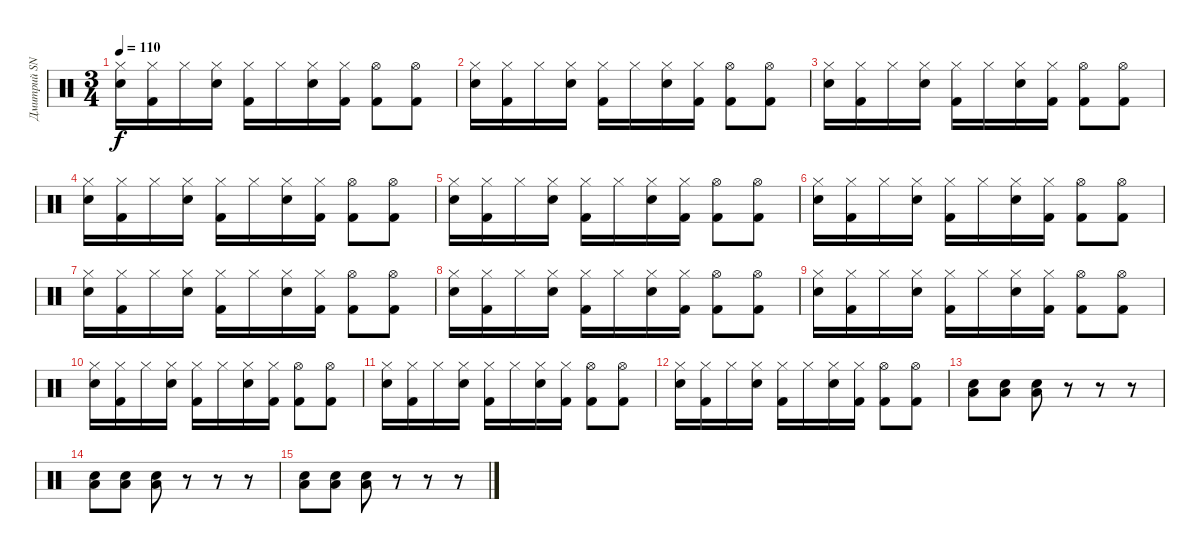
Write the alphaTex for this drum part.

\track ("Дмитрий SNAKE" "Дмитрий SN") {instrument percussion}
\staff {score}
\articulation defaults
\ts (3 4)
\tempo 110
\clef neutral
\ks c
("Hi-Hat (closed)" "Snare (hit) 2").16{dy f} ("Hi-Hat (closed)" "Kick (hit) 2").16 "Hi-Hat (closed)".16 ("Hi-Hat (closed)" "Snare (hit) 2").16 ("Hi-Hat (closed)" "Kick (hit) 2").16 "Hi-Hat (closed)".16 ("Hi-Hat (closed)" "Snare (hit) 2").16 ("Hi-Hat (closed)" "Kick (hit) 2").16 ("Hi-Hat (open)" "Kick (hit) 2").8 ("Hi-Hat (open)" "Kick (hit) 2").8 |
("Hi-Hat (closed)" "Snare (hit) 2").16 ("Hi-Hat (closed)" "Kick (hit) 2").16 "Hi-Hat (closed)".16 ("Hi-Hat (closed)" "Snare (hit) 2").16 ("Hi-Hat (closed)" "Kick (hit) 2").16 "Hi-Hat (closed)".16 ("Hi-Hat (closed)" "Snare (hit) 2").16 ("Hi-Hat (closed)" "Kick (hit) 2").16 ("Hi-Hat (open)" "Kick (hit) 2").8 ("Hi-Hat (open)" "Kick (hit) 2").8 |
("Hi-Hat (closed)" "Snare (hit) 2").16 ("Hi-Hat (closed)" "Kick (hit) 2").16 "Hi-Hat (closed)".16 ("Hi-Hat (closed)" "Snare (hit) 2").16 ("Hi-Hat (closed)" "Kick (hit) 2").16 "Hi-Hat (closed)".16 ("Hi-Hat (closed)" "Snare (hit) 2").16 ("Hi-Hat (closed)" "Kick (hit) 2").16 ("Hi-Hat (open)" "Kick (hit) 2").8 ("Hi-Hat (open)" "Kick (hit) 2").8 |
("Hi-Hat (closed)" "Snare (hit) 2").16 ("Hi-Hat (closed)" "Kick (hit) 2").16 "Hi-Hat (closed)".16 ("Hi-Hat (closed)" "Snare (hit) 2").16 ("Hi-Hat (closed)" "Kick (hit) 2").16 "Hi-Hat (closed)".16 ("Hi-Hat (closed)" "Snare (hit) 2").16 ("Hi-Hat (closed)" "Kick (hit) 2").16 ("Hi-Hat (open)" "Kick (hit) 2").8 ("Hi-Hat (open)" "Kick (hit) 2").8 |
("Hi-Hat (closed)" "Snare (hit) 2").16 ("Hi-Hat (closed)" "Kick (hit) 2").16 "Hi-Hat (closed)".16 ("Hi-Hat (closed)" "Snare (hit) 2").16 ("Hi-Hat (closed)" "Kick (hit) 2").16 "Hi-Hat (closed)".16 ("Hi-Hat (closed)" "Snare (hit) 2").16 ("Hi-Hat (closed)" "Kick (hit) 2").16 ("Hi-Hat (open)" "Kick (hit) 2").8 ("Hi-Hat (open)" "Kick (hit) 2").8 |
("Hi-Hat (closed)" "Snare (hit) 2").16 ("Hi-Hat (closed)" "Kick (hit) 2").16 "Hi-Hat (closed)".16 ("Hi-Hat (closed)" "Snare (hit) 2").16 ("Hi-Hat (closed)" "Kick (hit) 2").16 "Hi-Hat (closed)".16 ("Hi-Hat (closed)" "Snare (hit) 2").16 ("Hi-Hat (closed)" "Kick (hit) 2").16 ("Hi-Hat (open)" "Kick (hit) 2").8 ("Hi-Hat (open)" "Kick (hit) 2").8 |
("Hi-Hat (closed)" "Snare (hit) 2").16 ("Hi-Hat (closed)" "Kick (hit) 2").16 "Hi-Hat (closed)".16 ("Hi-Hat (closed)" "Snare (hit) 2").16 ("Hi-Hat (closed)" "Kick (hit) 2").16 "Hi-Hat (closed)".16 ("Hi-Hat (closed)" "Snare (hit) 2").16 ("Hi-Hat (closed)" "Kick (hit) 2").16 ("Hi-Hat (open)" "Kick (hit) 2").8 ("Hi-Hat (open)" "Kick (hit) 2").8 |
("Hi-Hat (closed)" "Snare (hit) 2").16 ("Hi-Hat (closed)" "Kick (hit) 2").16 "Hi-Hat (closed)".16 ("Hi-Hat (closed)" "Snare (hit) 2").16 ("Hi-Hat (closed)" "Kick (hit) 2").16 "Hi-Hat (closed)".16 ("Hi-Hat (closed)" "Snare (hit) 2").16 ("Hi-Hat (closed)" "Kick (hit) 2").16 ("Hi-Hat (open)" "Kick (hit) 2").8 ("Hi-Hat (open)" "Kick (hit) 2").8 |
("Hi-Hat (closed)" "Snare (hit) 2").16 ("Hi-Hat (closed)" "Kick (hit) 2").16 "Hi-Hat (closed)".16 ("Hi-Hat (closed)" "Snare (hit) 2").16 ("Hi-Hat (closed)" "Kick (hit) 2").16 "Hi-Hat (closed)".16 ("Hi-Hat (closed)" "Snare (hit) 2").16 ("Hi-Hat (closed)" "Kick (hit) 2").16 ("Hi-Hat (open)" "Kick (hit) 2").8 ("Hi-Hat (open)" "Kick (hit) 2").8 |
("Hi-Hat (closed)" "Snare (hit) 2").16 ("Hi-Hat (closed)" "Kick (hit) 2").16 "Hi-Hat (closed)".16 ("Hi-Hat (closed)" "Snare (hit) 2").16 ("Hi-Hat (closed)" "Kick (hit) 2").16 "Hi-Hat (closed)".16 ("Hi-Hat (closed)" "Snare (hit) 2").16 ("Hi-Hat (closed)" "Kick (hit) 2").16 ("Hi-Hat (open)" "Kick (hit) 2").8 ("Hi-Hat (open)" "Kick (hit) 2").8 |
("Hi-Hat (closed)" "Snare (hit) 2").16 ("Hi-Hat (closed)" "Kick (hit) 2").16 "Hi-Hat (closed)".16 ("Hi-Hat (closed)" "Snare (hit) 2").16 ("Hi-Hat (closed)" "Kick (hit) 2").16 "Hi-Hat (closed)".16 ("Hi-Hat (closed)" "Snare (hit) 2").16 ("Hi-Hat (closed)" "Kick (hit) 2").16 ("Hi-Hat (open)" "Kick (hit) 2").8 ("Hi-Hat (open)" "Kick (hit) 2").8 |
("Hi-Hat (closed)" "Snare (hit) 2").16 ("Hi-Hat (closed)" "Kick (hit) 2").16 "Hi-Hat (closed)".16 ("Hi-Hat (closed)" "Snare (hit) 2").16 ("Hi-Hat (closed)" "Kick (hit) 2").16 "Hi-Hat (closed)".16 ("Hi-Hat (closed)" "Snare (hit) 2").16 ("Hi-Hat (closed)" "Kick (hit) 2").16 ("Hi-Hat (open)" "Kick (hit) 2").8 ("Hi-Hat (open)" "Kick (hit) 2").8 |
("Snare (hit) 2" "Low Tom (hit)").8 ("Snare (hit) 2" "Low Tom (hit)").8 ("Snare (hit) 2" "Low Tom (hit)").8 r.8 r.8 r.8 |
("Snare (hit) 2" "Low Tom (hit)").8 ("Snare (hit) 2" "Low Tom (hit)").8 ("Snare (hit) 2" "Low Tom (hit)").8 r.8 r.8 r.8 |
("Snare (hit) 2" "Low Tom (hit)").8 ("Snare (hit) 2" "Low Tom (hit)").8 ("Snare (hit) 2" "Low Tom (hit)").8 r.8 r.8 r.8
